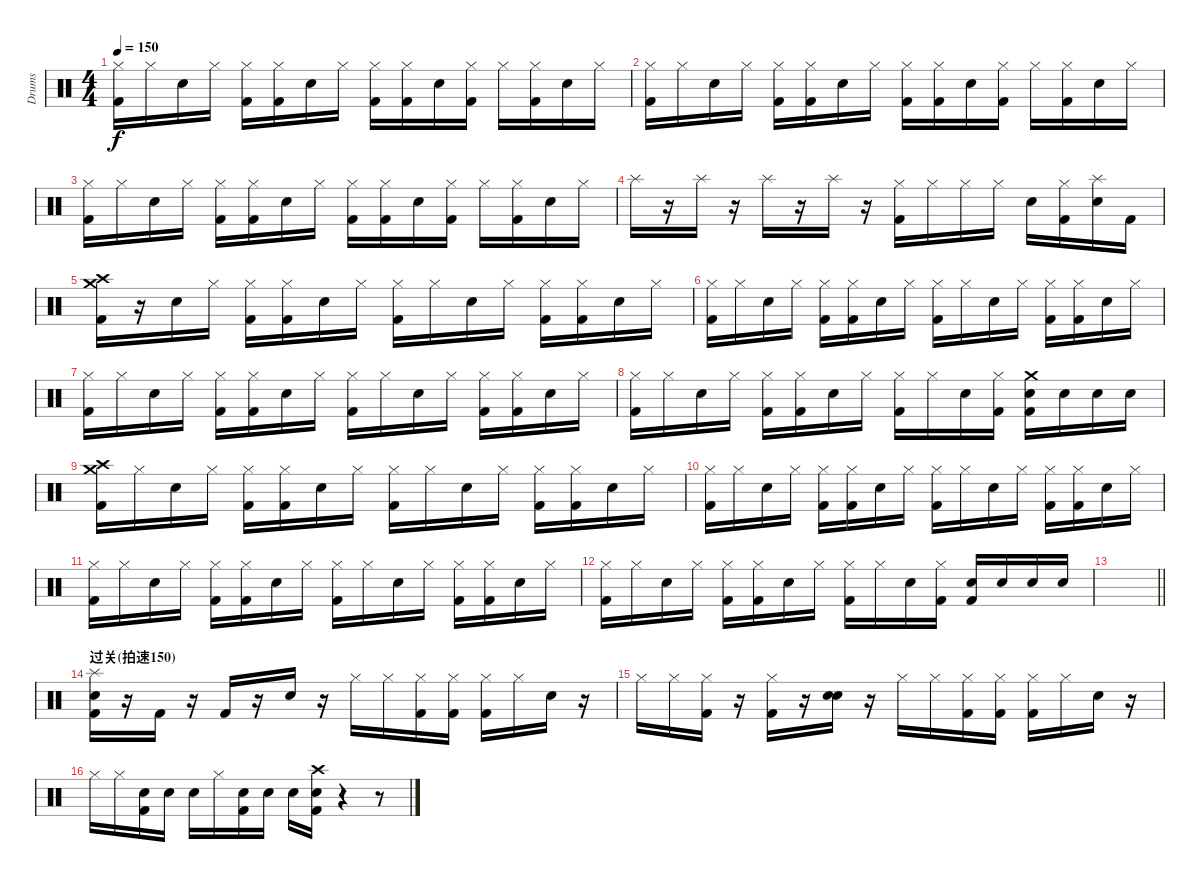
\track ("Drums" "Drums") {instrument percussion}
\staff {score}
\articulation defaults
\ts (4 4)
\tempo 150
\clef neutral
\ks c
("Hi-Hat (closed)" "Kick (hit) 2").16{dy f} "Hi-Hat (closed)".16 "Snare (hit) 2".16 "Hi-Hat (closed)".16 ("Hi-Hat (closed)" "Kick (hit) 2").16 ("Hi-Hat (closed)" "Kick (hit) 2").16 "Snare (hit) 2".16 "Hi-Hat (closed)".16 ("Hi-Hat (closed)" "Kick (hit) 2").16 ("Hi-Hat (closed)" "Kick (hit) 2").16 "Snare (hit) 2".16 ("Hi-Hat (closed)" "Kick (hit) 2").16 "Hi-Hat (closed)".16 ("Hi-Hat (closed)" "Kick (hit) 2").16 "Snare (hit) 2".16 "Hi-Hat (closed)".16 |
("Hi-Hat (closed)" "Kick (hit) 2").16 "Hi-Hat (closed)".16 "Snare (hit) 2".16 "Hi-Hat (closed)".16 ("Hi-Hat (closed)" "Kick (hit) 2").16 ("Hi-Hat (closed)" "Kick (hit) 2").16 "Snare (hit) 2".16 "Hi-Hat (closed)".16 ("Hi-Hat (closed)" "Kick (hit) 2").16 ("Hi-Hat (closed)" "Kick (hit) 2").16 "Snare (hit) 2".16 ("Hi-Hat (closed)" "Kick (hit) 2").16 "Hi-Hat (closed)".16 ("Hi-Hat (closed)" "Kick (hit) 2").16 "Snare (hit) 2".16 "Hi-Hat (closed)".16 |
("Hi-Hat (closed)" "Kick (hit) 2").16 "Hi-Hat (closed)".16 "Snare (hit) 2".16 "Hi-Hat (closed)".16 ("Hi-Hat (closed)" "Kick (hit) 2").16 ("Hi-Hat (closed)" "Kick (hit) 2").16 "Snare (hit) 2".16 "Hi-Hat (closed)".16 ("Hi-Hat (closed)" "Kick (hit) 2").16 ("Hi-Hat (closed)" "Kick (hit) 2").16 "Snare (hit) 2".16 ("Hi-Hat (closed)" "Kick (hit) 2").16 "Hi-Hat (closed)".16 ("Hi-Hat (closed)" "Kick (hit) 2").16 "Snare (hit) 2".16 "Hi-Hat (closed)".16 |
"Splash (hit)".16 r.16 "Splash (hit)".16 r.16 "Splash (hit)".16 r.16 "Splash (hit)".16 r.16 ("Hi-Hat (closed)" "Kick (hit) 2").16 "Hi-Hat (closed)".16 "Hi-Hat (closed)".16 "Hi-Hat (closed)".16 "Snare (hit) 2".16 ("Hi-Hat (closed)" "Kick (hit) 2").16 ("Splash (hit)" "Snare (hit) 2").16 "Kick (hit) 2".16 |
("Crash medium (hit)" "Crash high (hit)" "Kick (hit) 2").16 r.16 "Snare (hit) 2".16 "Hi-Hat (closed)".16 ("Hi-Hat (closed)" "Kick (hit) 2").16 ("Hi-Hat (closed)" "Kick (hit) 2").16 "Snare (hit) 2".16 "Hi-Hat (closed)".16 ("Hi-Hat (closed)" "Kick (hit) 2").16 "Hi-Hat (closed)".16 "Snare (hit) 2".16 "Hi-Hat (closed)".16 ("Hi-Hat (closed)" "Kick (hit) 2").16 ("Hi-Hat (closed)" "Kick (hit) 2").16 "Snare (hit) 2".16 "Hi-Hat (closed)".16 |
("Hi-Hat (closed)" "Kick (hit) 2").16 "Hi-Hat (closed)".16 "Snare (hit) 2".16 "Hi-Hat (closed)".16 ("Hi-Hat (closed)" "Kick (hit) 2").16 ("Hi-Hat (closed)" "Kick (hit) 2").16 "Snare (hit) 2".16 "Hi-Hat (closed)".16 ("Hi-Hat (closed)" "Kick (hit) 2").16 "Hi-Hat (closed)".16 "Snare (hit) 2".16 "Hi-Hat (closed)".16 ("Hi-Hat (closed)" "Kick (hit) 2").16 ("Hi-Hat (closed)" "Kick (hit) 2").16 "Snare (hit) 2".16 "Hi-Hat (closed)".16 |
("Hi-Hat (closed)" "Kick (hit) 2").16 "Hi-Hat (closed)".16 "Snare (hit) 2".16 "Hi-Hat (closed)".16 ("Hi-Hat (closed)" "Kick (hit) 2").16 ("Hi-Hat (closed)" "Kick (hit) 2").16 "Snare (hit) 2".16 "Hi-Hat (closed)".16 ("Hi-Hat (closed)" "Kick (hit) 2").16 "Hi-Hat (closed)".16 "Snare (hit) 2".16 "Hi-Hat (closed)".16 ("Hi-Hat (closed)" "Kick (hit) 2").16 ("Hi-Hat (closed)" "Kick (hit) 2").16 "Snare (hit) 2".16 "Hi-Hat (closed)".16 |
("Hi-Hat (closed)" "Kick (hit) 2").16 "Hi-Hat (closed)".16 "Snare (hit) 2".16 "Hi-Hat (closed)".16 ("Hi-Hat (closed)" "Kick (hit) 2").16 ("Hi-Hat (closed)" "Kick (hit) 2").16 "Snare (hit) 2".16 "Hi-Hat (closed)".16 ("Hi-Hat (closed)" "Kick (hit) 2").16 "Hi-Hat (closed)".16 "Snare (hit) 2".16 ("Hi-Hat (closed)" "Kick (hit) 2").16 ("Crash medium (hit)" "Snare (hit) 2" "Kick (hit) 2").16 "Snare (hit) 2".16 "Snare (hit) 2".16 "Snare (hit) 2".16 |
("Crash medium (hit)" "Crash high (hit)" "Kick (hit) 2").16 "Hi-Hat (closed)".16 "Snare (hit) 2".16 "Hi-Hat (closed)".16 ("Hi-Hat (closed)" "Kick (hit) 2").16 ("Hi-Hat (closed)" "Kick (hit) 2").16 "Snare (hit) 2".16 "Hi-Hat (closed)".16 ("Hi-Hat (closed)" "Kick (hit) 2").16 "Hi-Hat (closed)".16 "Snare (hit) 2".16 "Hi-Hat (closed)".16 ("Hi-Hat (closed)" "Kick (hit) 2").16 ("Hi-Hat (closed)" "Kick (hit) 2").16 "Snare (hit) 2".16 "Hi-Hat (closed)".16 |
("Hi-Hat (closed)" "Kick (hit) 2").16 "Hi-Hat (closed)".16 "Snare (hit) 2".16 "Hi-Hat (closed)".16 ("Hi-Hat (closed)" "Kick (hit) 2").16 ("Hi-Hat (closed)" "Kick (hit) 2").16 "Snare (hit) 2".16 "Hi-Hat (closed)".16 ("Hi-Hat (closed)" "Kick (hit) 2").16 "Hi-Hat (closed)".16 "Snare (hit) 2".16 "Hi-Hat (closed)".16 ("Hi-Hat (closed)" "Kick (hit) 2").16 ("Hi-Hat (closed)" "Kick (hit) 2").16 "Snare (hit) 2".16 "Hi-Hat (closed)".16 |
("Hi-Hat (closed)" "Kick (hit) 2").16{volume 0} "Hi-Hat (closed)".16 "Snare (hit) 2".16 "Hi-Hat (closed)".16 ("Hi-Hat (closed)" "Kick (hit) 2").16 ("Hi-Hat (closed)" "Kick (hit) 2").16 "Snare (hit) 2".16 "Hi-Hat (closed)".16 ("Hi-Hat (closed)" "Kick (hit) 2").16 "Hi-Hat (closed)".16 "Snare (hit) 2".16 "Hi-Hat (closed)".16 ("Hi-Hat (closed)" "Kick (hit) 2").16 ("Hi-Hat (closed)" "Kick (hit) 2").16 "Snare (hit) 2".16 "Hi-Hat (closed)".16 |
("Hi-Hat (closed)" "Kick (hit) 2").16 "Hi-Hat (closed)".16 "Snare (hit) 2".16 "Hi-Hat (closed)".16 ("Hi-Hat (closed)" "Kick (hit) 2").16 ("Hi-Hat (closed)" "Kick (hit) 2").16 "Snare (hit) 2".16 "Hi-Hat (closed)".16 ("Hi-Hat (closed)" "Kick (hit) 2").16 "Hi-Hat (closed)".16 "Snare (hit) 2".16 ("Hi-Hat (closed)" "Kick (hit) 2").16 ("Snare (hit) 2" "Kick (hit) 2").16 "Snare (hit) 2".16 "Snare (hit) 2".16 "Snare (hit) 2".16 |
\barLineRight lightlight
|
\section ("" "过关(拍速150)")
("Splash (hit)" "Snare (hit) 2" "Kick (hit) 2").16{volume 13} r.16 "Kick (hit) 2".16 r.16 "Kick (hit) 2".16 r.16 "Snare (hit) 2".16 r.16 "Hi-Hat (closed)".16 "Hi-Hat (closed)".16 ("Hi-Hat (closed)" "Kick (hit) 2").16 ("Hi-Hat (closed)" "Kick (hit) 2").16 ("Hi-Hat (closed)" "Kick (hit) 2").16 "Hi-Hat (closed)".16 "Snare (hit) 2".16 r.16 |
"Hi-Hat (closed)".16 "Hi-Hat (closed)".16 ("Hi-Hat (closed)" "Kick (hit) 2").16 r.16 ("Hi-Hat (closed)" "Kick (hit) 2").16 r.16 ("Snare (hit) 2" "Snare (hit) 2").16 r.16 "Hi-Hat (closed)".16 "Hi-Hat (closed)".16 ("Hi-Hat (closed)" "Kick (hit) 2").16 ("Hi-Hat (closed)" "Kick (hit) 2").16 ("Hi-Hat (closed)" "Kick (hit) 2").16 "Hi-Hat (closed)".16 "Snare (hit) 2".16 r.16 |
"Hi-Hat (closed)".16 "Hi-Hat (closed)".16 ("Snare (hit) 2" "Kick (hit) 2").16 "Snare (hit) 2".16 "Snare (hit) 2".16 "Hi-Hat (closed)".16 ("Snare (hit) 2" "Kick (hit) 2").16 "Snare (hit) 2".16 "Snare (hit) 2".16 ("Crash high (hit)" "Snare (hit) 2" "Kick (hit) 2").16 r.4 r.8
